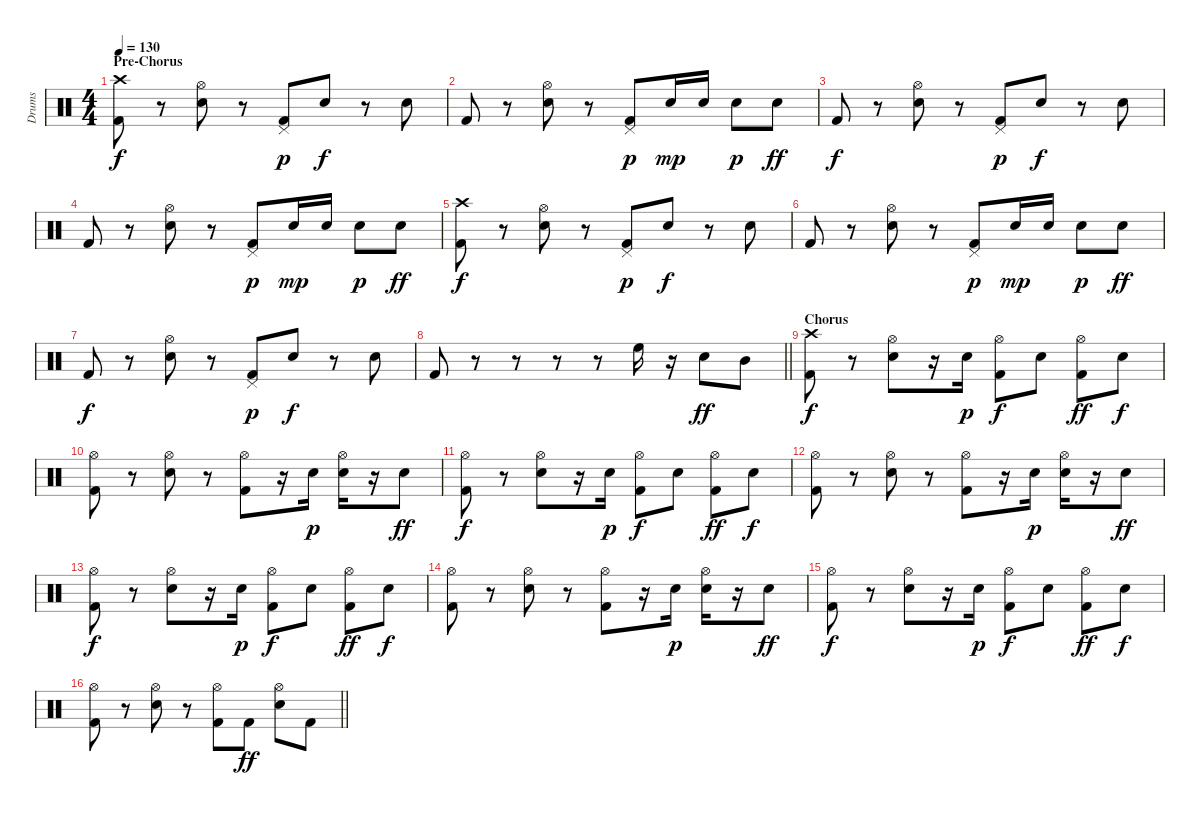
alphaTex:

\track ("Drums" "Drums") {instrument percussion}
\staff {score}
\articulation defaults
\ts (4 4)
\section ("" "Pre-Chorus")
\tempo 130
\clef neutral
\ks c
("Crash high (hit)" "Kick (hit) 2").8{dy f} r.8 ("Hi-Hat (open)" "Snare (hit) 2").8 r.8 ("Pedal Hi-Hat (hit)" "Kick (hit) 2").8{dy p} "Snare (hit) 2".8{dy f} r.8 "Snare (hit) 2".8 |
"Kick (hit) 2".8 r.8 ("Hi-Hat (open)" "Snare (hit) 2").8 r.8 ("Pedal Hi-Hat (hit)" "Kick (hit) 2").8{dy p} "Snare (hit) 2".16{dy mp} "Snare (hit) 2".16 "Snare (hit) 2".8{dy p} "Snare (hit) 2".8{dy ff} |
"Kick (hit) 2".8{dy f} r.8 ("Hi-Hat (open)" "Snare (hit) 2").8 r.8 ("Pedal Hi-Hat (hit)" "Kick (hit) 2").8{dy p} "Snare (hit) 2".8{dy f} r.8 "Snare (hit) 2".8 |
"Kick (hit) 2".8 r.8 ("Hi-Hat (open)" "Snare (hit) 2").8 r.8 ("Pedal Hi-Hat (hit)" "Kick (hit) 2").8{dy p} "Snare (hit) 2".16{dy mp} "Snare (hit) 2".16 "Snare (hit) 2".8{dy p} "Snare (hit) 2".8{dy ff} |
("Crash high (hit)" "Kick (hit) 2").8{dy f} r.8 ("Hi-Hat (open)" "Snare (hit) 2").8 r.8 ("Pedal Hi-Hat (hit)" "Kick (hit) 2").8{dy p} "Snare (hit) 2".8{dy f} r.8 "Snare (hit) 2".8 |
"Kick (hit) 2".8 r.8 ("Hi-Hat (open)" "Snare (hit) 2").8 r.8 ("Pedal Hi-Hat (hit)" "Kick (hit) 2").8{dy p} "Snare (hit) 2".16{dy mp} "Snare (hit) 2".16 "Snare (hit) 2".8{dy p} "Snare (hit) 2".8{dy ff} |
"Kick (hit) 2".8{dy f} r.8 ("Hi-Hat (open)" "Snare (hit) 2").8 r.8 ("Pedal Hi-Hat (hit)" "Kick (hit) 2").8{dy p} "Snare (hit) 2".8{dy f} r.8 "Snare (hit) 2".8 |
\barLineRight lightlight "Kick (hit) 2".8
r.8 r.8 r.8 r.8 "High Floor Tom (hit)".16 r.16 "Snare (hit) 2".8{dy ff} "Mid Tom (hit)".8 |
\section ("" "Chorus")
("Crash high (hit)" "Kick (hit) 2").8{dy f} r.8 ("Hi-Hat (open)" "Snare (hit) 2").8 r.16 "Snare (hit) 2".16{dy p} ("Hi-Hat (open)" "Kick (hit) 2").8{dy f} "Snare (hit) 2".8 ("Hi-Hat (open)" "Kick (hit) 2").8{dy ff} "Snare (hit) 2".8{dy f} |
("Hi-Hat (open)" "Kick (hit) 2").8 r.8 ("Hi-Hat (open)" "Snare (hit) 2").8 r.8 ("Hi-Hat (open)" "Kick (hit) 2").8 r.16 "Snare (hit) 2".16{dy p} ("Hi-Hat (open)" "Snare (hit) 2").16 r.16 "Snare (hit) 2".8{dy ff} |
("Hi-Hat (open)" "Kick (hit) 2").8{dy f} r.8 ("Hi-Hat (open)" "Snare (hit) 2").8 r.16 "Snare (hit) 2".16{dy p} ("Hi-Hat (open)" "Kick (hit) 2").8{dy f} "Snare (hit) 2".8 ("Hi-Hat (open)" "Kick (hit) 2").8{dy ff} "Snare (hit) 2".8{dy f} |
("Hi-Hat (open)" "Kick (hit) 2").8 r.8 ("Hi-Hat (open)" "Snare (hit) 2").8 r.8 ("Hi-Hat (open)" "Kick (hit) 2").8 r.16 "Snare (hit) 2".16{dy p} ("Hi-Hat (open)" "Snare (hit) 2").16 r.16 "Snare (hit) 2".8{dy ff} |
("Hi-Hat (open)" "Kick (hit) 2").8{dy f} r.8 ("Hi-Hat (open)" "Snare (hit) 2").8 r.16 "Snare (hit) 2".16{dy p} ("Hi-Hat (open)" "Kick (hit) 2").8{dy f} "Snare (hit) 2".8 ("Hi-Hat (open)" "Kick (hit) 2").8{dy ff} "Snare (hit) 2".8{dy f} |
("Hi-Hat (open)" "Kick (hit) 2").8 r.8 ("Hi-Hat (open)" "Snare (hit) 2").8 r.8 ("Hi-Hat (open)" "Kick (hit) 2").8 r.16 "Snare (hit) 2".16{dy p} ("Hi-Hat (open)" "Snare (hit) 2").16 r.16 "Snare (hit) 2".8{dy ff} |
("Hi-Hat (open)" "Kick (hit) 2").8{dy f} r.8 ("Hi-Hat (open)" "Snare (hit) 2").8 r.16 "Snare (hit) 2".16{dy p} ("Hi-Hat (open)" "Kick (hit) 2").8{dy f} "Snare (hit) 2".8 ("Hi-Hat (open)" "Kick (hit) 2").8{dy ff} "Snare (hit) 2".8{dy f} |
\barLineRight lightlight
("Hi-Hat (open)" "Kick (hit) 2").8 r.8 ("Hi-Hat (open)" "Snare (hit) 2").8 r.8 ("Hi-Hat (open)" "Kick (hit) 2").8 "Kick (hit) 2".8{dy ff} ("Hi-Hat (open)" "Snare (hit) 2").8 "Kick (hit) 2".8
